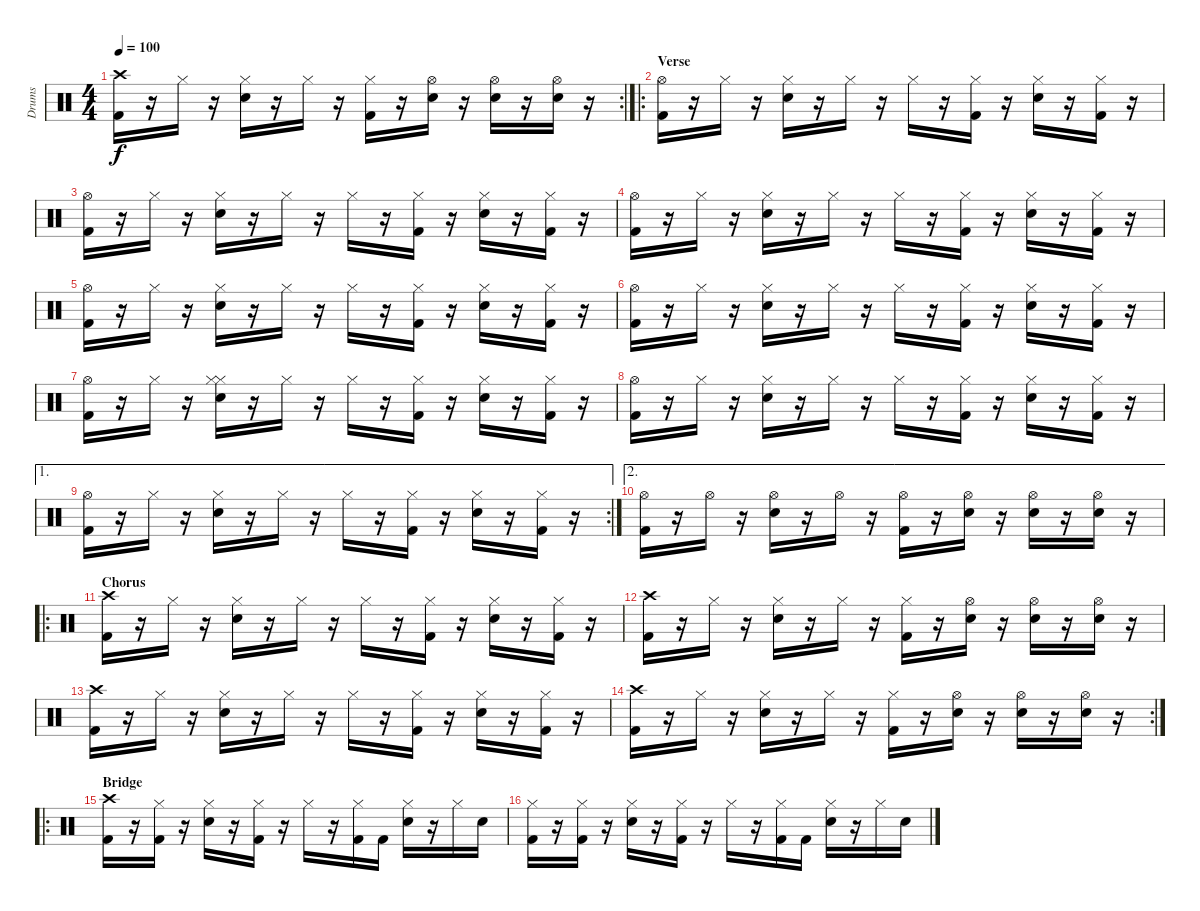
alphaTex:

\track ("Drums" "Drums") {instrument percussion}
\staff {score}
\articulation defaults
\rc 2
\ts (4 4)
\tempo 100
\clef neutral
\ks c
("Crash high (hit)" "Kick (hit) 2").16{dy f} r.16 "Hi-Hat (closed)".16 r.16 ("Hi-Hat (closed)" "Snare (hit) 2").16 r.16 "Hi-Hat (closed)".16 r.16 ("Hi-Hat (closed)" "Kick (hit) 2").16 r.16 ("Hi-Hat (open)" "Snare (hit) 2").16 r.16 ("Hi-Hat (open)" "Snare (hit) 2").16 r.16 ("Hi-Hat (open)" "Snare (hit) 2").16 r.16 |
\ro
\section ("" "Verse")
("Hi-Hat (open)" "Kick (hit) 2").16 r.16 "Hi-Hat (closed)".16 r.16 ("Hi-Hat (closed)" "Snare (hit) 2").16 r.16 "Hi-Hat (closed)".16 r.16 "Hi-Hat (closed)".16 r.16 ("Hi-Hat (closed)" "Kick (hit) 2").16 r.16 ("Hi-Hat (closed)" "Snare (hit) 2").16 r.16 ("Hi-Hat (closed)" "Kick (hit) 2").16 r.16 |
("Hi-Hat (open)" "Kick (hit) 2").16 r.16 "Hi-Hat (closed)".16 r.16 ("Hi-Hat (closed)" "Snare (hit) 2").16 r.16 "Hi-Hat (closed)".16 r.16 "Hi-Hat (closed)".16 r.16 ("Hi-Hat (closed)" "Kick (hit) 2").16 r.16 ("Hi-Hat (closed)" "Snare (hit) 2").16 r.16 ("Hi-Hat (closed)" "Kick (hit) 2").16 r.16 |
("Hi-Hat (open)" "Kick (hit) 2").16 r.16 "Hi-Hat (closed)".16 r.16 ("Hi-Hat (closed)" "Snare (hit) 2").16 r.16 "Hi-Hat (closed)".16 r.16 "Hi-Hat (closed)".16 r.16 ("Hi-Hat (closed)" "Kick (hit) 2").16 r.16 ("Hi-Hat (closed)" "Snare (hit) 2").16 r.16 ("Hi-Hat (closed)" "Kick (hit) 2").16 r.16 |
("Hi-Hat (open)" "Kick (hit) 2").16 r.16 "Hi-Hat (closed)".16 r.16 ("Hi-Hat (closed)" "Snare (hit) 2").16 r.16 "Hi-Hat (closed)".16 r.16 "Hi-Hat (closed)".16 r.16 ("Hi-Hat (closed)" "Kick (hit) 2").16 r.16 ("Hi-Hat (closed)" "Snare (hit) 2").16 r.16 ("Hi-Hat (closed)" "Kick (hit) 2").16 r.16 |
("Hi-Hat (open)" "Kick (hit) 2").16 r.16 "Hi-Hat (closed)".16 r.16 ("Hi-Hat (closed)" "Snare (hit) 2").16 r.16 "Hi-Hat (closed)".16 r.16 "Hi-Hat (closed)".16 r.16 ("Hi-Hat (closed)" "Kick (hit) 2").16 r.16 ("Hi-Hat (closed)" "Snare (hit) 2").16 r.16 ("Hi-Hat (closed)" "Kick (hit) 2").16 r.16 |
("Hi-Hat (open)" "Kick (hit) 2").16 r.16 "Hi-Hat (closed)".16 r.16 ("Hi-Hat (closed)" "Hi-Hat (closed)" "Snare (hit) 2").16 r.16 "Hi-Hat (closed)".16 r.16 "Hi-Hat (closed)".16 r.16 ("Hi-Hat (closed)" "Kick (hit) 2").16 r.16 ("Hi-Hat (closed)" "Snare (hit) 2").16 r.16 ("Hi-Hat (closed)" "Kick (hit) 2").16 r.16 |
("Hi-Hat (open)" "Kick (hit) 2").16 r.16 "Hi-Hat (closed)".16 r.16 ("Hi-Hat (closed)" "Snare (hit) 2").16 r.16 "Hi-Hat (closed)".16 r.16 "Hi-Hat (closed)".16 r.16 ("Hi-Hat (closed)" "Kick (hit) 2").16 r.16 ("Hi-Hat (closed)" "Snare (hit) 2").16 r.16 ("Hi-Hat (closed)" "Kick (hit) 2").16 r.16 |
\ae 1
\rc 2
("Hi-Hat (open)" "Kick (hit) 2").16 r.16 "Hi-Hat (closed)".16 r.16 ("Hi-Hat (closed)" "Snare (hit) 2").16 r.16 "Hi-Hat (closed)".16 r.16 "Hi-Hat (closed)".16 r.16 ("Hi-Hat (closed)" "Kick (hit) 2").16 r.16 ("Hi-Hat (closed)" "Snare (hit) 2").16 r.16 ("Hi-Hat (closed)" "Kick (hit) 2").16 r.16 |
\ae 2
("Hi-Hat (open)" "Kick (hit) 2").16 r.16 "Hi-Hat (open)".16 r.16 ("Hi-Hat (open)" "Snare (hit) 2").16 r.16 "Hi-Hat (open)".16 r.16 ("Hi-Hat (open)" "Kick (hit) 2").16 r.16 ("Hi-Hat (open)" "Snare (hit) 2").16 r.16 ("Hi-Hat (open)" "Snare (hit) 2").16 r.16 ("Hi-Hat (open)" "Snare (hit) 2").16 r.16 |
\ro
\section ("" "Chorus")
("Crash high (hit)" "Kick (hit) 2").16 r.16 "Hi-Hat (closed)".16 r.16 ("Hi-Hat (closed)" "Snare (hit) 2").16 r.16 "Hi-Hat (closed)".16 r.16 "Hi-Hat (closed)".16 r.16 ("Hi-Hat (closed)" "Kick (hit) 2").16 r.16 ("Hi-Hat (closed)" "Snare (hit) 2").16 r.16 ("Hi-Hat (closed)" "Kick (hit) 2").16 r.16 |
("Crash high (hit)" "Kick (hit) 2").16 r.16 "Hi-Hat (closed)".16 r.16 ("Hi-Hat (closed)" "Snare (hit) 2").16 r.16 "Hi-Hat (closed)".16 r.16 ("Hi-Hat (closed)" "Kick (hit) 2").16 r.16 ("Hi-Hat (open)" "Snare (hit) 2").16 r.16 ("Hi-Hat (open)" "Snare (hit) 2").16 r.16 ("Hi-Hat (open)" "Snare (hit) 2").16 r.16 |
("Crash high (hit)" "Kick (hit) 2").16 r.16 "Hi-Hat (closed)".16 r.16 ("Hi-Hat (closed)" "Snare (hit) 2").16 r.16 "Hi-Hat (closed)".16 r.16 "Hi-Hat (closed)".16 r.16 ("Hi-Hat (closed)" "Kick (hit) 2").16 r.16 ("Hi-Hat (closed)" "Snare (hit) 2").16 r.16 ("Hi-Hat (closed)" "Kick (hit) 2").16 r.16 |
\rc 2
("Crash high (hit)" "Kick (hit) 2").16 r.16 "Hi-Hat (closed)".16 r.16 ("Hi-Hat (closed)" "Snare (hit) 2").16 r.16 "Hi-Hat (closed)".16 r.16 ("Hi-Hat (closed)" "Kick (hit) 2").16 r.16 ("Hi-Hat (open)" "Snare (hit) 2").16 r.16 ("Hi-Hat (open)" "Snare (hit) 2").16 r.16 ("Hi-Hat (open)" "Snare (hit) 2").16 r.16 |
\ro
\section ("" "Bridge")
("Crash high (hit)" "Kick (hit) 2").16 r.16 ("Hi-Hat (closed)" "Kick (hit) 2").16 r.16 ("Hi-Hat (closed)" "Snare (hit) 2").16 r.16 ("Hi-Hat (closed)" "Kick (hit) 2").16 r.16 "Hi-Hat (closed)".16 r.16 ("Hi-Hat (closed)" "Kick (hit) 2").16 "Kick (hit) 2".16 ("Hi-Hat (closed)" "Snare (hit) 2").16 r.16 "Hi-Hat (closed)".16 "Snare (hit) 2".16 |
("Hi-Hat (closed)" "Kick (hit) 2").16 r.16 ("Hi-Hat (closed)" "Kick (hit) 2").16 r.16 ("Hi-Hat (closed)" "Snare (hit) 2").16 r.16 ("Hi-Hat (closed)" "Kick (hit) 2").16 r.16 "Hi-Hat (closed)".16 r.16 ("Hi-Hat (closed)" "Kick (hit) 2").16 "Kick (hit) 2".16 ("Hi-Hat (closed)" "Snare (hit) 2").16 r.16 "Hi-Hat (closed)".16 "Snare (hit) 2".16
